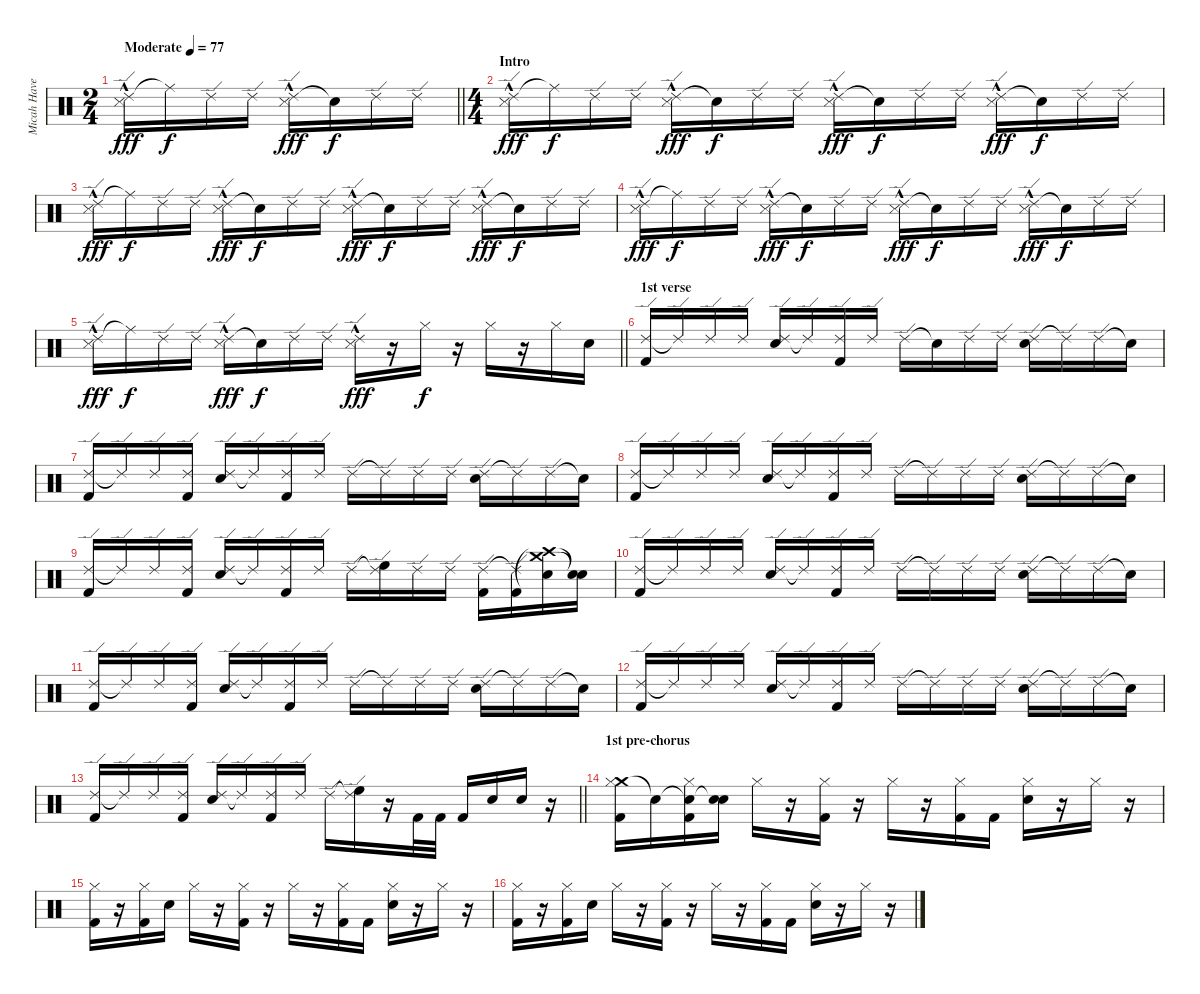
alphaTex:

\track ("Micah Havertape" "Micah Have") {instrument percussion}
\staff {score}
\articulation defaults
\ts (2 4)
\tempo (77 "Moderate")
\clef neutral
\barLineRight lightlight
\ks c
("Ride (edge) 2"{hac} "Snare (side stick) 3").16{dy fff} "Ride (middle)"{t}.16{dy f} "Ride (edge) 2".16 "Ride (edge) 2".16 ("Ride (edge) 2"{hac} "Snare (side stick) 3").16{dy fff} "Snare (hit)"{t}.16{dy f} "Ride (edge) 2".16 "Ride (edge) 2".16 |
\ts (4 4)
\section ("" "Intro")
("Ride (edge) 2"{hac} "Snare (side stick) 3").16{dy fff} "Ride (middle)"{t}.16{dy f} "Ride (edge) 2".16 "Ride (edge) 2".16 ("Ride (edge) 2"{hac} "Snare (side stick) 3").16{dy fff} "Snare (hit)"{t}.16{dy f} "Ride (edge) 2".16 "Ride (edge) 2".16 ("Ride (edge) 2"{hac} "Snare (side stick) 3").16{dy fff} "Snare (hit)"{t}.16{dy f} "Ride (edge) 2".16 "Ride (edge) 2".16 ("Ride (edge) 2"{hac} "Snare (side stick) 3").16{dy fff} "Snare (hit)"{t}.16{dy f} "Ride (edge) 2".16 "Ride (edge) 2".16 |
("Ride (edge) 2"{hac} "Snare (side stick) 3").16{dy fff} "Ride (middle)"{t}.16{dy f} "Ride (edge) 2".16 "Ride (edge) 2".16 ("Ride (edge) 2"{hac} "Snare (side stick) 3").16{dy fff} "Snare (hit)"{t}.16{dy f} "Ride (edge) 2".16 "Ride (edge) 2".16 ("Ride (edge) 2"{hac} "Snare (side stick) 3").16{dy fff} "Snare (hit)"{t}.16{dy f} "Ride (edge) 2".16 "Ride (edge) 2".16 ("Ride (edge) 2"{hac} "Snare (side stick) 3").16{dy fff} "Snare (hit)"{t}.16{dy f} "Ride (edge) 2".16 "Ride (edge) 2".16 |
("Ride (edge) 2"{hac} "Snare (side stick) 3").16{dy fff} "Ride (middle)"{t}.16{dy f} "Ride (edge) 2".16 "Ride (edge) 2".16 ("Ride (edge) 2"{hac} "Snare (side stick) 3").16{dy fff} "Snare (hit)"{t}.16{dy f} "Ride (edge) 2".16 "Ride (edge) 2".16 ("Ride (edge) 2"{hac} "Snare (side stick) 3").16{dy fff} "Snare (hit)"{t}.16{dy f} "Ride (edge) 2".16 "Ride (edge) 2".16 ("Ride (edge) 2"{hac} "Snare (side stick) 3").16{dy fff} "Snare (hit)"{t}.16{dy f} "Ride (edge) 2".16 "Ride (edge) 2".16 |
\barLineRight lightlight
("Ride (edge) 2"{hac} "Snare (side stick) 3").16{dy fff} "Ride (middle)"{t}.16{dy f} "Ride (edge) 2".16 "Ride (edge) 2".16 ("Ride (edge) 2"{hac} "Snare (side stick) 3").16{dy fff} "Snare (hit)"{t}.16{dy f} "Ride (edge) 2".16 "Ride (edge) 2".16 ("Ride (edge) 2"{hac} "Snare (side stick) 3").16{dy fff} r.16 "Hi-Hat (closed)".16{dy f} r.16 "Hi-Hat (closed)".16 r.16 "Hi-Hat (closed)".16 "Electric Snare (hit)".16 |
\section ("" "1st verse")
("Ride (edge) 2" "Kick (hit) 2").16 "Ride (edge) 2"{t}.16 "Ride (edge) 2".16 "Ride (edge) 2".16 ("Ride (edge) 2" "Electric Snare (hit)").16 "Ride (edge) 2"{t}.16 ("Ride (edge) 2" "Kick (hit) 2").16 "Ride (edge) 2".16 "Ride (edge) 2".16 "Snare (hit)"{t}.16 "Ride (edge) 2".16 "Ride (edge) 2".16 ("Ride (edge) 2" "Electric Snare (hit)").16 "Ride (edge) 2"{t}.16 "Ride (edge) 2".16 "Snare (hit)"{t}.16 |
("Ride (edge) 2" "Kick (hit) 2").16 "Ride (edge) 2"{t}.16 "Ride (edge) 2".16 ("Ride (edge) 2" "Kick (hit) 2").16 ("Ride (edge) 2" "Electric Snare (hit)").16 "Ride (edge) 2"{t}.16 ("Ride (edge) 2" "Kick (hit) 2").16 "Ride (edge) 2".16 "Ride (edge) 2".16 "Ride (edge) 2"{t}.16 "Ride (edge) 2".16 "Ride (edge) 2".16 ("Ride (edge) 2" "Electric Snare (hit)").16 "Ride (edge) 2"{t}.16 "Ride (edge) 2".16 "Snare (hit)"{t}.16 |
("Ride (edge) 2" "Kick (hit) 2").16 "Ride (edge) 2"{t}.16 "Ride (edge) 2".16 "Ride (edge) 2".16 ("Ride (edge) 2" "Electric Snare (hit)").16 "Ride (edge) 2"{t}.16 ("Ride (edge) 2" "Kick (hit) 2").16 "Ride (edge) 2".16 "Ride (edge) 2".16 "Ride (edge) 2"{t}.16 "Ride (edge) 2".16 "Ride (edge) 2".16 ("Ride (edge) 2" "Electric Snare (hit)").16 "Ride (edge) 2"{t}.16 "Ride (edge) 2".16 "Snare (hit)"{t}.16 |
("Ride (edge) 2" "Kick (hit) 2").16 "Ride (edge) 2"{t}.16 "Ride (edge) 2".16 ("Ride (edge) 2" "Kick (hit) 2").16 ("Ride (edge) 2" "Electric Snare (hit)").16 "Ride (edge) 2"{t}.16 ("Ride (edge) 2" "Kick (hit) 2").16 "Ride (edge) 2".16 "Ride (edge) 2".16 ("Ride (edge) 2"{t} "High Floor Tom (hit)").16 "Ride (edge) 2".16 "Ride (edge) 2".16 ("Ride (edge) 2" "Kick (hit) 2").16 ("Ride (edge) 2"{t} "Kick (hit) 2").16 ("Crash medium (hit)" "Crash high (hit)"{t} "Electric Snare (hit)").16 ("Snare (hit)"{t} "Snare (hit)"{t}).16 |
("Ride (edge) 2" "Kick (hit) 2").16 "Ride (edge) 2"{t}.16 "Ride (edge) 2".16 "Ride (edge) 2".16 ("Ride (edge) 2" "Electric Snare (hit)").16 "Ride (edge) 2"{t}.16 ("Ride (edge) 2" "Kick (hit) 2").16 "Ride (edge) 2".16 "Ride (edge) 2".16 "Ride (edge) 2"{t}.16 "Ride (edge) 2".16 "Ride (edge) 2".16 ("Ride (edge) 2" "Electric Snare (hit)").16 "Ride (edge) 2"{t}.16 "Ride (edge) 2".16 "Snare (hit)"{t}.16 |
("Ride (edge) 2" "Kick (hit) 2").16 "Ride (edge) 2"{t}.16 "Ride (edge) 2".16 ("Ride (edge) 2" "Kick (hit) 2").16 ("Ride (edge) 2" "Electric Snare (hit)").16 "Ride (edge) 2"{t}.16 ("Ride (edge) 2" "Kick (hit) 2").16 "Ride (edge) 2".16 "Ride (edge) 2".16 "Ride (edge) 2"{t}.16 "Ride (edge) 2".16 "Ride (edge) 2".16 ("Ride (edge) 2" "Electric Snare (hit)").16 "Ride (edge) 2"{t}.16 "Ride (edge) 2".16 "Snare (hit)"{t}.16 |
("Ride (edge) 2" "Kick (hit) 2").16 "Ride (edge) 2"{t}.16 "Ride (edge) 2".16 "Ride (edge) 2".16 ("Ride (edge) 2" "Electric Snare (hit)").16 "Ride (edge) 2"{t}.16 ("Ride (edge) 2" "Kick (hit) 2").16 "Ride (edge) 2".16 "Ride (edge) 2".16 "Ride (edge) 2"{t}.16 "Ride (edge) 2".16 "Ride (edge) 2".16 ("Ride (edge) 2" "Electric Snare (hit)").16 "Ride (edge) 2"{t}.16 "Ride (edge) 2".16 "Snare (hit)"{t}.16 |
\barLineRight lightlight
("Ride (edge) 2" "Kick (hit) 2").16 "Ride (edge) 2"{t}.16 "Ride (edge) 2".16 ("Ride (edge) 2" "Kick (hit) 2").16 ("Ride (edge) 2" "Electric Snare (hit)").16 "Ride (edge) 2"{t}.16 ("Ride (edge) 2" "Kick (hit) 2").16 "Ride (edge) 2".16 "Ride (edge) 2".16 ("Ride (edge) 2"{t} "High Floor Tom (hit)").16 r.16 "Kick (hit) 2".32 "Kick (hit) 2".32 "Kick (hit) 2".16 "Electric Snare (hit)".16 "Electric Snare (hit)".16 r.16 |
\section ("" "1st pre-chorus")
("Crash medium (hit)" "Hi-Hat (closed)" "Kick (hit) 2").16 "Snare (hit)"{t}.16 ("Snare (hit)"{t} "Hi-Hat (closed)" "Kick (hit) 2").16 ("Snare (hit)"{t} "Electric Snare (hit)").16 "Hi-Hat (closed)".16 r.16 ("Hi-Hat (closed)" "Kick (hit) 2").16 r.16 "Hi-Hat (closed)".16 r.16 ("Hi-Hat (closed)" "Kick (hit) 2").16 "Kick (hit) 2".16 ("Hi-Hat (closed)" "Electric Snare (hit)").16 r.16 "Hi-Hat (closed)".16 r.16 |
("Hi-Hat (closed)" "Kick (hit) 2").16 r.16 ("Hi-Hat (closed)" "Kick (hit) 2").16 "Electric Snare (hit)".16 "Hi-Hat (closed)".16 r.16 ("Hi-Hat (closed)" "Kick (hit) 2").16 r.16 "Hi-Hat (closed)".16 r.16 ("Hi-Hat (closed)" "Kick (hit) 2").16 "Kick (hit) 2".16 ("Hi-Hat (closed)" "Electric Snare (hit)").16 r.16 "Hi-Hat (closed)".16 r.16 |
("Hi-Hat (closed)" "Kick (hit) 2").16 r.16 ("Hi-Hat (closed)" "Kick (hit) 2").16 "Electric Snare (hit)".16 "Hi-Hat (closed)".16 r.16 ("Hi-Hat (closed)" "Kick (hit) 2").16 r.16 "Hi-Hat (closed)".16 r.16 ("Hi-Hat (closed)" "Kick (hit) 2").16 "Kick (hit) 2".16 ("Hi-Hat (closed)" "Electric Snare (hit)").16 r.16 "Hi-Hat (closed)".16 r.16
